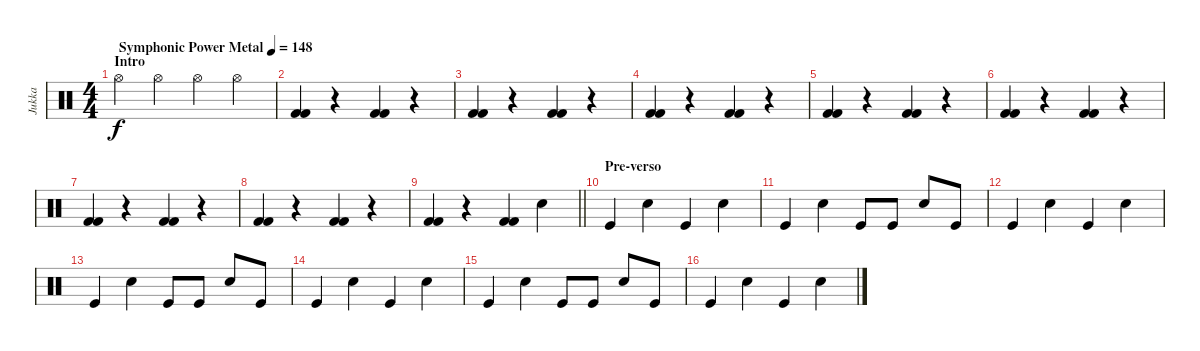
\track ("Jukka" "Jukka") {instrument percussion}
\staff {score}
\articulation defaults
\ts (4 4)
\section ("" "Intro")
\tempo (148 "Symphonic Power Metal")
\clef neutral
\ks c "Hi-Hat (open)".4{dy f} "Hi-Hat (open)".4 "Hi-Hat (open)".4 "Hi-Hat (open)".4
|
("Kick (hit) 2" "Kick (hit) 2").4 r.4 ("Kick (hit) 2" "Kick (hit) 2").4 r.4 |
("Kick (hit) 2" "Kick (hit) 2").4 r.4 ("Kick (hit) 2" "Kick (hit) 2").4 r.4 |
("Kick (hit) 2" "Kick (hit) 2").4 r.4 ("Kick (hit) 2" "Kick (hit) 2").4 r.4 |
("Kick (hit) 2" "Kick (hit) 2").4 r.4 ("Kick (hit) 2" "Kick (hit) 2").4 r.4 |
("Kick (hit) 2" "Kick (hit) 2").4 r.4 ("Kick (hit) 2" "Kick (hit) 2").4 r.4 |
("Kick (hit) 2" "Kick (hit) 2").4 r.4 ("Kick (hit) 2" "Kick (hit) 2").4 r.4 |
("Kick (hit) 2" "Kick (hit) 2").4 r.4 ("Kick (hit) 2" "Kick (hit) 2").4 r.4 |
\barLineRight lightlight
("Kick (hit) 2" "Kick (hit) 2").4 r.4 ("Kick (hit) 2" "Kick (hit) 2").4 "Snare (hit) 2".4 |
\section ("" "Pre-verso")
"Kick (hit)".4 "Snare (hit) 2".4 "Kick (hit)".4 "Snare (hit) 2".4 |
"Kick (hit)".4 "Snare (hit) 2".4 "Kick (hit)".8 "Kick (hit)".8 "Snare (hit) 2".8 "Kick (hit)".8 |
"Kick (hit)".4 "Snare (hit) 2".4 "Kick (hit)".4 "Snare (hit) 2".4 |
"Kick (hit)".4 "Snare (hit) 2".4 "Kick (hit)".8 "Kick (hit)".8 "Snare (hit) 2".8 "Kick (hit)".8 |
"Kick (hit)".4 "Snare (hit) 2".4 "Kick (hit)".4 "Snare (hit) 2".4 |
"Kick (hit)".4 "Snare (hit) 2".4 "Kick (hit)".8 "Kick (hit)".8 "Snare (hit) 2".8 "Kick (hit)".8 |
"Kick (hit)".4 "Snare (hit) 2".4 "Kick (hit)".4 "Snare (hit) 2".4
